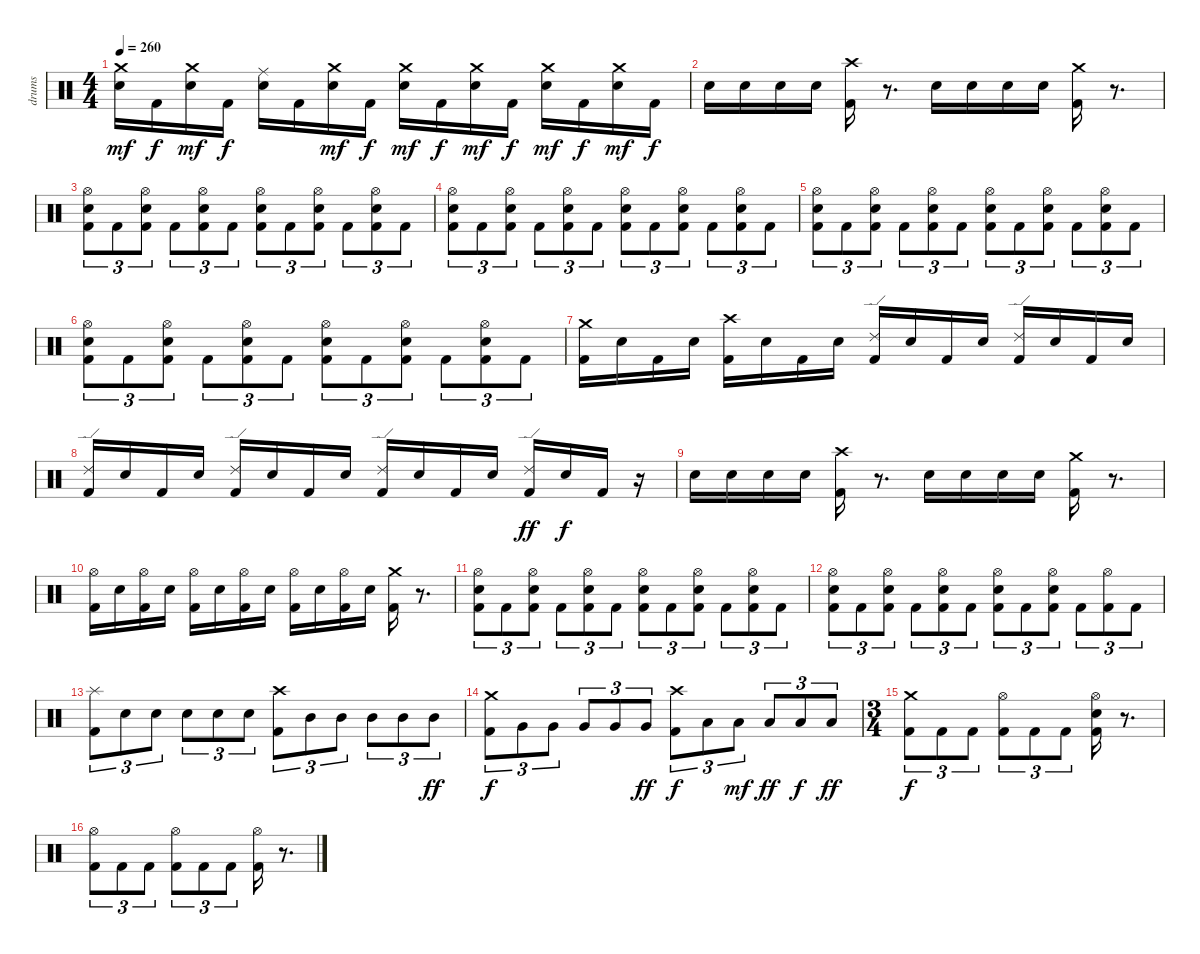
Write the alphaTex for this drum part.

\track ("drums" "drums") {instrument percussion}
\staff {score}
\articulation defaults
\ts (4 4)
\tempo 260
\clef neutral
\ks c
("Snare (hit) 2" "Crash medium (hit)").16{dy mf} "Kick (hit) 2".16{dy f} ("Snare (hit) 2" "Crash medium (hit)").16{dy mf} "Kick (hit) 2".16{dy f} ("Snare (hit) 2" "Ride (middle)").16 "Kick (hit) 2".16 ("Snare (hit) 2" "Crash medium (hit)").16{dy mf} "Kick (hit) 2".16{dy f} ("Snare (hit) 2" "Crash medium (hit)").16{dy mf} "Kick (hit) 2".16{dy f} ("Snare (hit) 2" "Crash medium (hit)").16{dy mf} "Kick (hit) 2".16{dy f} ("Snare (hit) 2" "Crash medium (hit)").16{dy mf} "Kick (hit) 2".16{dy f} ("Snare (hit) 2" "Crash medium (hit)").16{dy mf} "Kick (hit) 2".16{dy f} |
"Snare (hit) 2".16 "Snare (hit) 2".16 "Snare (hit) 2".16 "Snare (hit) 2".16 ("Kick (hit) 2" "Crash high (hit)").16 r.8{d} "Snare (hit) 2".16 "Snare (hit) 2".16 "Snare (hit) 2".16 "Snare (hit) 2".16 ("Kick (hit) 2" "Crash medium (hit)").16 r.8{d} |
("Kick (hit) 2" "Snare (hit) 2" "Hi-Hat (open)").8{tu (3 2)} "Kick (hit) 2".8{tu (3 2)} ("Kick (hit) 2" "Snare (hit) 2" "Hi-Hat (open)").8{tu (3 2)} "Kick (hit) 2".8{tu (3 2)} ("Kick (hit) 2" "Snare (hit) 2" "Hi-Hat (open)").8{tu (3 2)} "Kick (hit) 2".8{tu (3 2)} ("Kick (hit) 2" "Snare (hit) 2" "Hi-Hat (open)").8{tu (3 2)} "Kick (hit) 2".8{tu (3 2)} ("Kick (hit) 2" "Snare (hit) 2" "Hi-Hat (open)").8{tu (3 2)} "Kick (hit) 2".8{tu (3 2)} ("Kick (hit) 2" "Snare (hit) 2" "Hi-Hat (open)").8{tu (3 2)} "Kick (hit) 2".8{tu (3 2)} |
("Kick (hit) 2" "Snare (hit) 2" "Hi-Hat (open)").8{tu (3 2)} "Kick (hit) 2".8{tu (3 2)} ("Kick (hit) 2" "Snare (hit) 2" "Hi-Hat (open)").8{tu (3 2)} "Kick (hit) 2".8{tu (3 2)} ("Kick (hit) 2" "Snare (hit) 2" "Hi-Hat (open)").8{tu (3 2)} "Kick (hit) 2".8{tu (3 2)} ("Kick (hit) 2" "Snare (hit) 2" "Hi-Hat (open)").8{tu (3 2)} "Kick (hit) 2".8{tu (3 2)} ("Kick (hit) 2" "Snare (hit) 2" "Hi-Hat (open)").8{tu (3 2)} "Kick (hit) 2".8{tu (3 2)} ("Kick (hit) 2" "Snare (hit) 2" "Hi-Hat (open)").8{tu (3 2)} "Kick (hit) 2".8{tu (3 2)} |
("Kick (hit) 2" "Snare (hit) 2" "Hi-Hat (open)").8{tu (3 2)} "Kick (hit) 2".8{tu (3 2)} ("Kick (hit) 2" "Snare (hit) 2" "Hi-Hat (open)").8{tu (3 2)} "Kick (hit) 2".8{tu (3 2)} ("Kick (hit) 2" "Snare (hit) 2" "Hi-Hat (open)").8{tu (3 2)} "Kick (hit) 2".8{tu (3 2)} ("Kick (hit) 2" "Snare (hit) 2" "Hi-Hat (open)").8{tu (3 2)} "Kick (hit) 2".8{tu (3 2)} ("Kick (hit) 2" "Snare (hit) 2" "Hi-Hat (open)").8{tu (3 2)} "Kick (hit) 2".8{tu (3 2)} ("Kick (hit) 2" "Snare (hit) 2" "Hi-Hat (open)").8{tu (3 2)} "Kick (hit) 2".8{tu (3 2)} |
("Kick (hit) 2" "Snare (hit) 2" "Hi-Hat (open)").8{tu (3 2)} "Kick (hit) 2".8{tu (3 2)} ("Kick (hit) 2" "Snare (hit) 2" "Hi-Hat (open)").8{tu (3 2)} "Kick (hit) 2".8{tu (3 2)} ("Kick (hit) 2" "Snare (hit) 2" "Hi-Hat (open)").8{tu (3 2)} "Kick (hit) 2".8{tu (3 2)} ("Kick (hit) 2" "Snare (hit) 2" "Hi-Hat (open)").8{tu (3 2)} "Kick (hit) 2".8{tu (3 2)} ("Kick (hit) 2" "Snare (hit) 2" "Hi-Hat (open)").8{tu (3 2)} "Kick (hit) 2".8{tu (3 2)} ("Kick (hit) 2" "Snare (hit) 2" "Hi-Hat (open)").8{tu (3 2)} "Kick (hit) 2".8{tu (3 2)} |
("Kick (hit) 2" "Crash medium (hit)").16 "Snare (hit) 2".16 "Kick (hit) 2".16 "Snare (hit) 2".16 ("Kick (hit) 2" "Crash high (hit)").16 "Snare (hit) 2".16 "Kick (hit) 2".16 "Snare (hit) 2".16 ("Kick (hit) 2" "Ride (edge) 2").16 "Snare (hit) 2".16 "Kick (hit) 2".16 "Snare (hit) 2".16 ("Kick (hit) 2" "Ride (edge) 2").16 "Snare (hit) 2".16 "Kick (hit) 2".16 "Snare (hit) 2".16 |
("Kick (hit) 2" "Ride (edge) 2").16 "Snare (hit) 2".16 "Kick (hit) 2".16 "Snare (hit) 2".16 ("Kick (hit) 2" "Ride (edge) 2").16 "Snare (hit) 2".16 "Kick (hit) 2".16 "Snare (hit) 2".16 ("Kick (hit) 2" "Ride (edge) 2").16 "Snare (hit) 2".16 "Kick (hit) 2".16 "Snare (hit) 2".16 ("Kick (hit) 2" "Ride (edge) 2").16{dy ff} "Snare (hit) 2".16{dy f} "Kick (hit) 2".16 r.16 |
"Snare (hit) 2".16 "Snare (hit) 2".16 "Snare (hit) 2".16 "Snare (hit) 2".16 ("Kick (hit) 2" "Crash high (hit)").16 r.8{d} "Snare (hit) 2".16 "Snare (hit) 2".16 "Snare (hit) 2".16 "Snare (hit) 2".16 ("Kick (hit) 2" "Crash medium (hit)").16 r.8{d} |
("Kick (hit) 2" "Hi-Hat (open)").16 "Snare (hit) 2".16 ("Kick (hit) 2" "Hi-Hat (open)").16 "Snare (hit) 2".16 ("Kick (hit) 2" "Hi-Hat (open)").16 "Snare (hit) 2".16 ("Kick (hit) 2" "Hi-Hat (open)").16 "Snare (hit) 2".16 ("Kick (hit) 2" "Hi-Hat (open)").16 "Snare (hit) 2".16 ("Kick (hit) 2" "Hi-Hat (open)").16 "Snare (hit) 2".16 ("Kick (hit) 2" "Crash medium (hit)").16 r.8{d} |
("Kick (hit) 2" "Snare (hit) 2" "Hi-Hat (open)").8{tu (3 2)} "Kick (hit) 2".8{tu (3 2)} ("Kick (hit) 2" "Snare (hit) 2" "Hi-Hat (open)").8{tu (3 2)} "Kick (hit) 2".8{tu (3 2)} ("Kick (hit) 2" "Snare (hit) 2" "Hi-Hat (open)").8{tu (3 2)} "Kick (hit) 2".8{tu (3 2)} ("Kick (hit) 2" "Snare (hit) 2" "Hi-Hat (open)").8{tu (3 2)} "Kick (hit) 2".8{tu (3 2)} ("Kick (hit) 2" "Snare (hit) 2" "Hi-Hat (open)").8{tu (3 2)} "Kick (hit) 2".8{tu (3 2)} ("Kick (hit) 2" "Snare (hit) 2" "Hi-Hat (open)").8{tu (3 2)} "Kick (hit) 2".8{tu (3 2)} |
("Kick (hit) 2" "Snare (hit) 2" "Hi-Hat (open)").8{tu (3 2)} "Kick (hit) 2".8{tu (3 2)} ("Kick (hit) 2" "Snare (hit) 2" "Hi-Hat (open)").8{tu (3 2)} "Kick (hit) 2".8{tu (3 2)} ("Kick (hit) 2" "Snare (hit) 2" "Hi-Hat (open)").8{tu (3 2)} "Kick (hit) 2".8{tu (3 2)} ("Kick (hit) 2" "Snare (hit) 2" "Hi-Hat (open)").8{tu (3 2)} "Kick (hit) 2".8{tu (3 2)} ("Kick (hit) 2" "Snare (hit) 2" "Hi-Hat (open)").8{tu (3 2)} "Kick (hit) 2".8{tu (3 2)} ("Kick (hit) 2" "Hi-Hat (open)").8{tu (3 2)} "Kick (hit) 2".8{tu (3 2)} |
("Kick (hit) 2" "Splash (hit)").8{tu (3 2)} "Snare (hit) 2".8{tu (3 2)} "Snare (hit) 2".8{tu (3 2)} "Snare (hit) 2".8{tu (3 2)} "Snare (hit) 2".8{tu (3 2)} "Snare (hit) 2".8{tu (3 2)} ("Kick (hit) 2" "Crash high (hit)").8{tu (3 2)} "Mid Tom (hit)".8{tu (3 2)} "Mid Tom (hit)".8{tu (3 2)} "Mid Tom (hit)".8{tu (3 2)} "Mid Tom (hit)".8{tu (3 2)} "Mid Tom (hit)".8{tu (3 2) dy ff} |
("Kick (hit) 2" "Crash medium (hit)").8{tu (3 2) dy f} "Very Low Tom (hit)".8{tu (3 2)} "Very Low Tom (hit)".8{tu (3 2)} "Very Low Tom (hit)".8{tu (3 2)} "Very Low Tom (hit)".8{tu (3 2)} "Very Low Tom (hit)".8{tu (3 2) dy ff} ("Kick (hit) 2" "Crash high (hit)").8{tu (3 2) dy f} "Low Floor Tom (hit)".8{tu (3 2)} "Low Floor Tom (hit)".8{tu (3 2) dy mf} "Low Floor Tom (hit)".8{tu (3 2) dy ff} "Low Floor Tom (hit)".8{tu (3 2) dy f} "Low Floor Tom (hit)".8{tu (3 2) dy ff} |
\ts (3 4)
("Kick (hit) 2" "Crash medium (hit)").8{tu (3 2) dy f} "Kick (hit) 2".8{tu (3 2)} "Kick (hit) 2".8{tu (3 2)} ("Kick (hit) 2" "Hi-Hat (open)").8{tu (3 2)} "Kick (hit) 2".8{tu (3 2)} "Kick (hit) 2".8{tu (3 2)} ("Kick (hit) 2" "Snare (hit) 2" "Hi-Hat (open)").16 r.8{d} |
("Kick (hit) 2" "Hi-Hat (open)").8{tu (3 2)} "Kick (hit) 2".8{tu (3 2)} "Kick (hit) 2".8{tu (3 2)} ("Kick (hit) 2" "Hi-Hat (open)").8{tu (3 2)} "Kick (hit) 2".8{tu (3 2)} "Kick (hit) 2".8{tu (3 2)} ("Kick (hit) 2" "Hi-Hat (open)").16 r.8{d}
